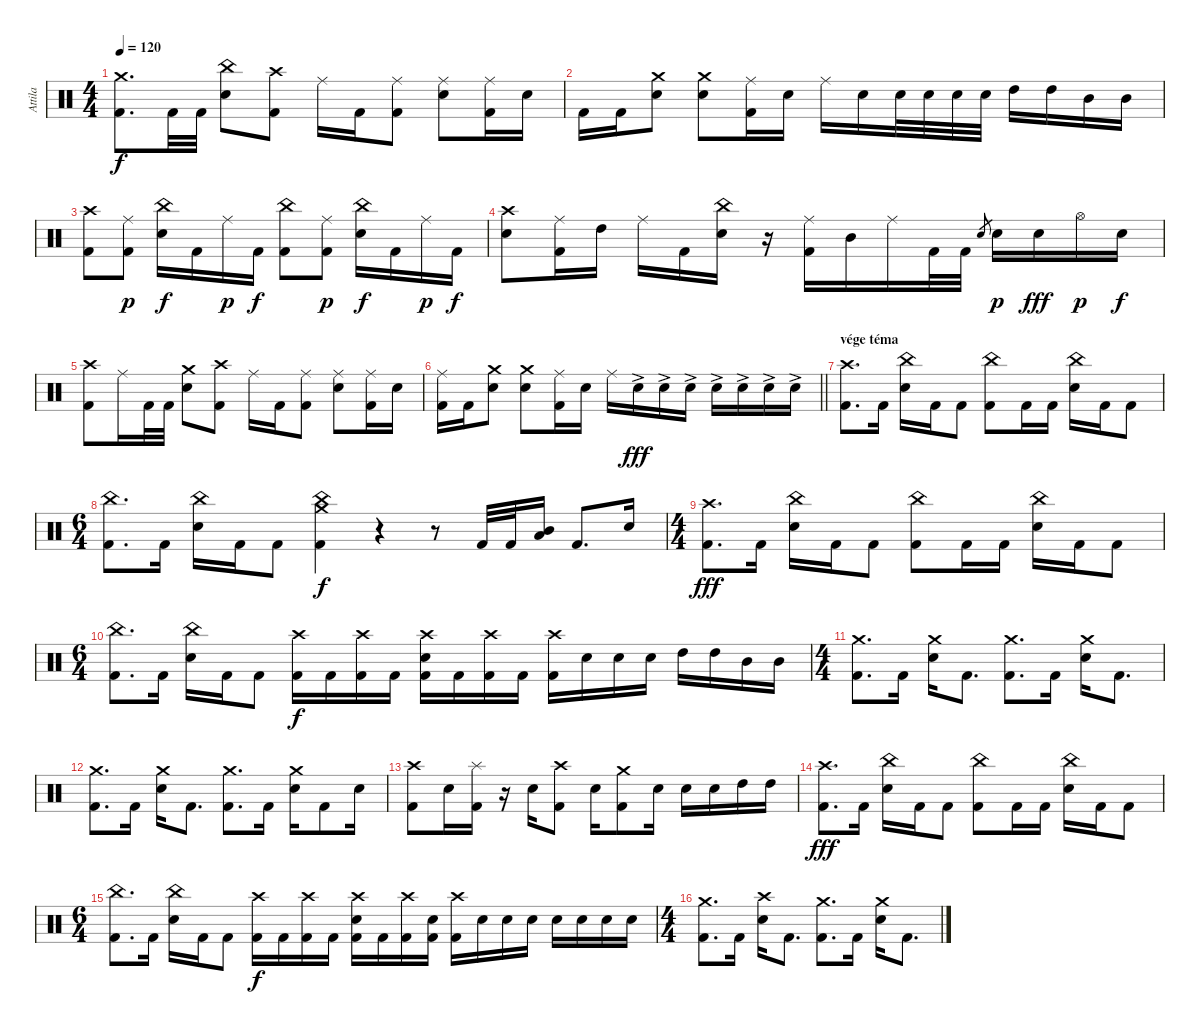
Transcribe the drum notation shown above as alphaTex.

\track ("Attila" "Attila") {instrument percussion}
\staff {score}
\articulation defaults
\ts (4 4)
\tempo 120
\clef neutral
\ks c
("Crash medium (hit)" "Kick (hit) 2").8{d dy f} "Kick (hit) 2".32 "Kick (hit) 2".32 ("China (hit)" "Electric Snare (hit)").8 ("Crash high (hit)" "Kick (hit) 2").8 "Ride (middle)".16 "Kick (hit) 2".16 ("Ride (middle)" "Kick (hit) 2").8 ("Ride (middle)" "Electric Snare (hit)").8 ("Ride (middle)" "Kick (hit) 2").16 "Electric Snare (hit)".16 |
"Kick (hit) 2".16 "Kick (hit) 2".16 ("Crash medium (hit)" "Electric Snare (hit)").8 ("Crash medium (hit)" "Electric Snare (hit)").8 ("Ride (middle)" "Kick (hit) 2").16 "Electric Snare (hit)".16 "Ride (middle)".16 "Electric Snare (hit)".16 "Electric Snare (hit)".32 "Electric Snare (hit)".32 "Electric Snare (hit)".32 "Electric Snare (hit)".32 "High Tom (hit)".16 "High Tom (hit)".16 "Mid Tom (hit)".16 "Mid Tom (hit)".16 |
("Crash high (hit)" "Kick (hit) 2").8 ("Ride (middle)" "Kick (hit) 2").8{dy p} ("China (hit)" "Electric Snare (hit)").16{dy f} "Kick (hit) 2".16 "Ride (middle)".16{dy p} "Kick (hit) 2".16{dy f} ("China (hit)" "Kick (hit) 2").8 ("Ride (middle)" "Kick (hit) 2").8{dy p} ("China (hit)" "Electric Snare (hit)").16{dy f} "Kick (hit) 2".16 "Ride (middle)".16{dy p} "Kick (hit) 2".16{dy f} |
("Crash high (hit)" "Electric Snare (hit)").8 ("Ride (middle)" "Kick (hit) 2").16 "High Tom (hit)".16 "Ride (middle)".16 "Kick (hit) 2".16 ("China (hit)" "Electric Snare (hit)").16 r.16 ("Ride (middle)" "Kick (hit) 2").16 "Mid Tom (hit)".16 "Ride (middle)".16 "Kick (hit) 2".32 "Kick (hit) 2".32 "Electric Snare (hit)".8{gr} "Electric Snare (hit)".16{dy p} "Electric Snare (hit)".16{dy fff} "Hi-Hat (open)".16{dy p} "Electric Snare (hit)".16{dy f} |
("Crash high (hit)" "Kick (hit) 2").8 "Ride (middle)".16 "Kick (hit) 2".32 "Kick (hit) 2".32 ("Crash medium (hit)" "Electric Snare (hit)").8 ("Crash high (hit)" "Kick (hit) 2").8 "Ride (middle)".16 "Kick (hit) 2".16 ("Ride (middle)" "Kick (hit) 2").8 ("Ride (middle)" "Electric Snare (hit)").8 ("Ride (middle)" "Kick (hit) 2").16 "Electric Snare (hit)".16 |
\barLineRight lightlight
("Ride (middle)" "Kick (hit) 2").16 "Kick (hit) 2".16 ("Crash medium (hit)" "Electric Snare (hit)").8 ("Crash medium (hit)" "Electric Snare (hit)").8 ("Ride (middle)" "Kick (hit) 2").16 "Electric Snare (hit)".16 "Ride (middle)".16 "Electric Snare (hit)"{ac}.16{dy fff} "Electric Snare (hit)"{ac}.16 "Electric Snare (hit)"{ac}.16 "Electric Snare (hit)"{ac}.16 "Electric Snare (hit)"{ac}.16 "Electric Snare (hit)"{ac}.16 "Electric Snare (hit)"{ac}.16 |
\section ("" "vége téma")
("Crash high (hit)" "Kick (hit) 2").8{d} "Kick (hit) 2".16 ("China (hit)" "Electric Snare (hit)").16 "Kick (hit) 2".16 "Kick (hit) 2".8 ("China (hit)" "Kick (hit) 2").8 "Kick (hit) 2".16 "Kick (hit) 2".16 ("China (hit)" "Electric Snare (hit)").16 "Kick (hit) 2".16 "Kick (hit) 2".8 |
\ts (6 4)
("China (hit)" "Kick (hit) 2").8{d} "Kick (hit) 2".16 ("China (hit)" "Electric Snare (hit)").16 "Kick (hit) 2".16 "Kick (hit) 2".8 ("China (hit)" "Crash medium (hit)" "Kick (hit) 2").4{dy f} r.4 r.8 "Kick (hit) 2".32 "Kick (hit) 2".32 ("Mid Tom (hit)" "Low Tom (hit)").16 "Kick (hit) 2".8{d} "Electric Snare (hit)".16 |
\ts (4 4)
("Crash high (hit)" "Kick (hit) 2").8{d dy fff} "Kick (hit) 2".16 ("China (hit)" "Electric Snare (hit)").16 "Kick (hit) 2".16 "Kick (hit) 2".8 ("China (hit)" "Kick (hit) 2").8 "Kick (hit) 2".16 "Kick (hit) 2".16 ("China (hit)" "Electric Snare (hit)").16 "Kick (hit) 2".16 "Kick (hit) 2".8 |
\ts (6 4)
("China (hit)" "Kick (hit) 2").8{d} "Kick (hit) 2".16 ("China (hit)" "Electric Snare (hit)").16 "Kick (hit) 2".16 "Kick (hit) 2".8 ("Crash high (hit)" "Kick (hit) 2").16{dy f} "Kick (hit) 2".16 ("Crash high (hit)" "Kick (hit) 2").16 "Kick (hit) 2".16 ("Crash high (hit)" "Electric Snare (hit)" "Kick (hit) 2").16 "Kick (hit) 2".16 ("Crash high (hit)" "Kick (hit) 2").16 "Kick (hit) 2".16 ("Crash high (hit)" "Kick (hit) 2").16 "Electric Snare (hit)".16 "Electric Snare (hit)".16 "Electric Snare (hit)".16 "High Tom (hit)".16 "High Tom (hit)".16 "Mid Tom (hit)".16 "Mid Tom (hit)".16 |
\ts (4 4)
("Crash medium (hit)" "Kick (hit) 2").8{d} "Kick (hit) 2".16 ("Crash medium (hit)" "Electric Snare (hit)").16 "Kick (hit) 2".8{d} ("Crash medium (hit)" "Kick (hit) 2").8{d} "Kick (hit) 2".16 ("Crash medium (hit)" "Electric Snare (hit)").16 "Kick (hit) 2".8{d} |
("Crash medium (hit)" "Kick (hit) 2").8{d} "Kick (hit) 2".16 ("Crash medium (hit)" "Electric Snare (hit)").16 "Kick (hit) 2".8{d} ("Crash medium (hit)" "Kick (hit) 2").8{d} "Kick (hit) 2".16 ("Crash medium (hit)" "Electric Snare (hit)").16 "Kick (hit) 2".8 "Electric Snare (hit)".16 |
("Crash high (hit)" "Kick (hit) 2").8 "Electric Snare (hit)".16 ("Splash (hit)" "Kick (hit) 2").16 r.16 "Electric Snare (hit)".16 ("Crash high (hit)" "Kick (hit) 2").8 "Electric Snare (hit)".16 ("Crash medium (hit)" "Kick (hit) 2").8 "Electric Snare (hit)".16 "Electric Snare (hit)".16 "Electric Snare (hit)".16 "High Tom (hit)".16 "High Tom (hit)".16 |
("Crash high (hit)" "Kick (hit) 2").8{d dy fff} "Kick (hit) 2".16 ("China (hit)" "Electric Snare (hit)").16 "Kick (hit) 2".16 "Kick (hit) 2".8 ("China (hit)" "Kick (hit) 2").8 "Kick (hit) 2".16 "Kick (hit) 2".16 ("China (hit)" "Electric Snare (hit)").16 "Kick (hit) 2".16 "Kick (hit) 2".8 |
\ts (6 4)
("China (hit)" "Kick (hit) 2").8{d} "Kick (hit) 2".16 ("China (hit)" "Electric Snare (hit)").16 "Kick (hit) 2".16 "Kick (hit) 2".8 ("Crash high (hit)" "Kick (hit) 2").16{dy f} "Kick (hit) 2".16 ("Crash high (hit)" "Kick (hit) 2").16 "Kick (hit) 2".16 ("Crash high (hit)" "Electric Snare (hit)" "Kick (hit) 2").16 "Kick (hit) 2".16 ("Crash high (hit)" "Kick (hit) 2").16 ("Electric Snare (hit)" "Kick (hit) 2").16 ("Crash high (hit)" "Kick (hit) 2").16 "Electric Snare (hit)".16 "Electric Snare (hit)".16 "Electric Snare (hit)".16 "Electric Snare (hit)".16 "Electric Snare (hit)".16 "Electric Snare (hit)".16 "Electric Snare (hit)".16 |
\ts (4 4)
("Crash medium (hit)" "Kick (hit) 2").8{d} "Kick (hit) 2".16 ("Crash high (hit)" "Electric Snare (hit)").16 "Kick (hit) 2".8{d} ("Crash medium (hit)" "Kick (hit) 2").8{d} "Kick (hit) 2".16 ("Crash medium (hit)" "Electric Snare (hit)").16 "Kick (hit) 2".8{d}
